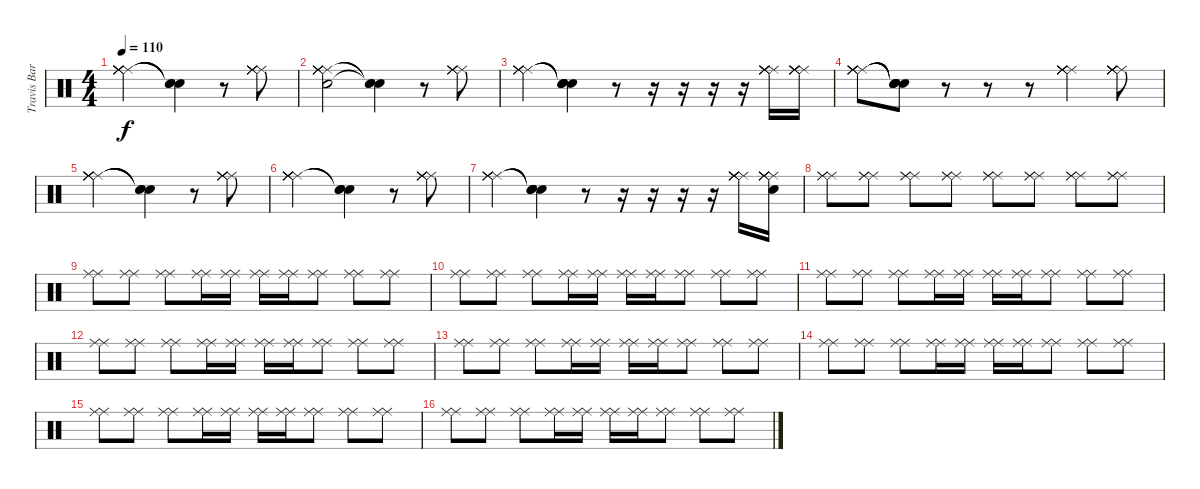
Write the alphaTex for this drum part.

\track ("Travis Barker - Drums" "Travis Bar") {instrument percussion}
\staff {score}
\articulation defaults
\ts (4 4)
\tempo 110
\clef neutral
\ks c
("Ride (middle)" "Ride (middle)" "Ride (middle)" "Ride (middle)" "Ride (middle)" "Ride (middle)").2{dy f} ("Snare (hit)"{t} "Snare (hit)"{t} "Snare (hit)"{t}).4 r.8 ("Ride (middle)" "Ride (middle)" "Ride (middle)" "Ride (middle)" "Ride (middle)").8 |
("Ride (middle)" "Snare (hit)" "Ride (middle)" "Ride (middle)" "Ride (middle)" "Ride (middle)").2 ("Snare (hit)"{t} "Snare (hit)"{t} "Snare (hit)"{t}).4 r.8 ("Ride (middle)" "Ride (middle)" "Ride (middle)" "Ride (middle)" "Ride (middle)").8 |
("Ride (middle)" "Ride (middle)" "Ride (middle)" "Ride (middle)" "Ride (middle)").4 ("Snare (hit)"{t} "Snare (hit)"{t} "Snare (hit)"{t} "Snare (hit)"{t}).4 r.8 r.16 r.16 r.16 r.16 ("Ride (middle)" "Ride (middle)" "Ride (middle)" "Ride (middle)" "Ride (middle)" "Ride (middle)").16 ("Ride (middle)" "Ride (middle)" "Ride (middle)" "Ride (middle)" "Ride (middle)" "Ride (middle)").16 |
("Ride (middle)" "Ride (middle)" "Ride (middle)" "Ride (middle)" "Ride (middle)" "Ride (middle)").8 ("Snare (hit)"{t} "Snare (hit)"{t} "Snare (hit)"{t} "Snare (hit)"{t} "Snare (hit)"{t}).8 r.8 r.8 r.8 ("Ride (middle)" "Ride (middle)" "Ride (middle)" "Ride (middle)" "Ride (middle)" "Ride (middle)").4 ("Ride (middle)" "Ride (middle)" "Ride (middle)" "Ride (middle)" "Ride (middle)" "Ride (middle)").8 |
("Ride (middle)" "Ride (middle)" "Ride (middle)" "Ride (middle)" "Ride (middle)" "Ride (middle)").2 ("Snare (hit)"{t} "Snare (hit)"{t} "Snare (hit)"{t}).4 r.8 ("Ride (middle)" "Ride (middle)" "Ride (middle)" "Ride (middle)" "Ride (middle)").8 |
("Ride (middle)" "Ride (middle)" "Ride (middle)" "Ride (middle)" "Ride (middle)" "Ride (middle)").2 ("Snare (hit)"{t} "Snare (hit)"{t} "Snare (hit)"{t}).4 r.8 ("Ride (middle)" "Ride (middle)" "Ride (middle)" "Ride (middle)" "Ride (middle)").8 |
("Ride (middle)" "Ride (middle)" "Ride (middle)" "Ride (middle)" "Ride (middle)").4 ("Snare (hit)"{t} "Snare (hit)"{t} "Snare (hit)"{t} "Snare (hit)"{t}).4 r.8 r.16 r.16 r.16 r.16 ("Ride (middle)" "Ride (middle)" "Ride (middle)" "Ride (middle)" "Ride (middle)" "Ride (middle)").16 ("Ride (middle)" "Ride (middle)" "Ride (middle)" "Ride (middle)" "Ride (middle)" "Snare (hit)").16 |
("Ride (middle)" "Ride (middle)" "Ride (middle)").8 ("Ride (middle)" "Ride (middle)" "Ride (middle)").8 ("Ride (middle)" "Ride (middle)" "Ride (middle)").8 ("Ride (middle)" "Ride (middle)" "Ride (middle)").8 ("Ride (middle)" "Ride (middle)" "Ride (middle)").8 ("Ride (middle)" "Ride (middle)" "Ride (middle)").8 ("Ride (middle)" "Ride (middle)" "Ride (middle)").8 ("Ride (middle)" "Ride (middle)" "Ride (middle)").8 |
("Ride (middle)" "Ride (middle)").8 ("Ride (middle)" "Ride (middle)").8 ("Ride (middle)" "Ride (middle)").8 ("Ride (middle)" "Ride (middle)").16 ("Ride (middle)" "Ride (middle)").16 ("Ride (middle)" "Ride (middle)").16 ("Ride (middle)" "Ride (middle)").16 ("Ride (middle)" "Ride (middle)").8 ("Ride (middle)" "Ride (middle)").8 ("Ride (middle)" "Ride (middle)").8 |
("Ride (middle)" "Ride (middle)").8 ("Ride (middle)" "Ride (middle)").8 ("Ride (middle)" "Ride (middle)").8 ("Ride (middle)" "Ride (middle)").16 ("Ride (middle)" "Ride (middle)").16 ("Ride (middle)" "Ride (middle)").16 ("Ride (middle)" "Ride (middle)").16 ("Ride (middle)" "Ride (middle)").8 ("Ride (middle)" "Ride (middle)").8 ("Ride (middle)" "Ride (middle)").8 |
("Ride (middle)" "Ride (middle)").8 ("Ride (middle)" "Ride (middle)").8 ("Ride (middle)" "Ride (middle)").8 ("Ride (middle)" "Ride (middle)").16 ("Ride (middle)" "Ride (middle)").16 ("Ride (middle)" "Ride (middle)").16 ("Ride (middle)" "Ride (middle)").16 ("Ride (middle)" "Ride (middle)").8 ("Ride (middle)" "Ride (middle)").8 ("Ride (middle)" "Ride (middle)").8 |
("Ride (middle)" "Ride (middle)").8 ("Ride (middle)" "Ride (middle)").8 ("Ride (middle)" "Ride (middle)").8 ("Ride (middle)" "Ride (middle)").16 ("Ride (middle)" "Ride (middle)").16 ("Ride (middle)" "Ride (middle)").16 ("Ride (middle)" "Ride (middle)").16 ("Ride (middle)" "Ride (middle)").8 ("Ride (middle)" "Ride (middle)").8 ("Ride (middle)" "Ride (middle)").8 |
("Ride (middle)" "Ride (middle)").8 ("Ride (middle)" "Ride (middle)").8 ("Ride (middle)" "Ride (middle)").8 ("Ride (middle)" "Ride (middle)").16 ("Ride (middle)" "Ride (middle)").16 ("Ride (middle)" "Ride (middle)").16 ("Ride (middle)" "Ride (middle)").16 ("Ride (middle)" "Ride (middle)").8 ("Ride (middle)" "Ride (middle)").8 ("Ride (middle)" "Ride (middle)").8 |
("Ride (middle)" "Ride (middle)").8 ("Ride (middle)" "Ride (middle)").8 ("Ride (middle)" "Ride (middle)").8 ("Ride (middle)" "Ride (middle)").16 ("Ride (middle)" "Ride (middle)").16 ("Ride (middle)" "Ride (middle)").16 ("Ride (middle)" "Ride (middle)").16 ("Ride (middle)" "Ride (middle)").8 ("Ride (middle)" "Ride (middle)").8 ("Ride (middle)" "Ride (middle)").8 |
("Ride (middle)" "Ride (middle)").8 ("Ride (middle)" "Ride (middle)").8 ("Ride (middle)" "Ride (middle)").8 ("Ride (middle)" "Ride (middle)").16 ("Ride (middle)" "Ride (middle)").16 ("Ride (middle)" "Ride (middle)").16 ("Ride (middle)" "Ride (middle)").16 ("Ride (middle)" "Ride (middle)").8 ("Ride (middle)" "Ride (middle)").8 ("Ride (middle)" "Ride (middle)").8 |
("Ride (middle)" "Ride (middle)").8 ("Ride (middle)" "Ride (middle)").8 ("Ride (middle)" "Ride (middle)").8 ("Ride (middle)" "Ride (middle)").16 ("Ride (middle)" "Ride (middle)").16 ("Ride (middle)" "Ride (middle)").16 ("Ride (middle)" "Ride (middle)").16 ("Ride (middle)" "Ride (middle)").8 ("Ride (middle)" "Ride (middle)").8 ("Ride (middle)" "Ride (middle)").8
